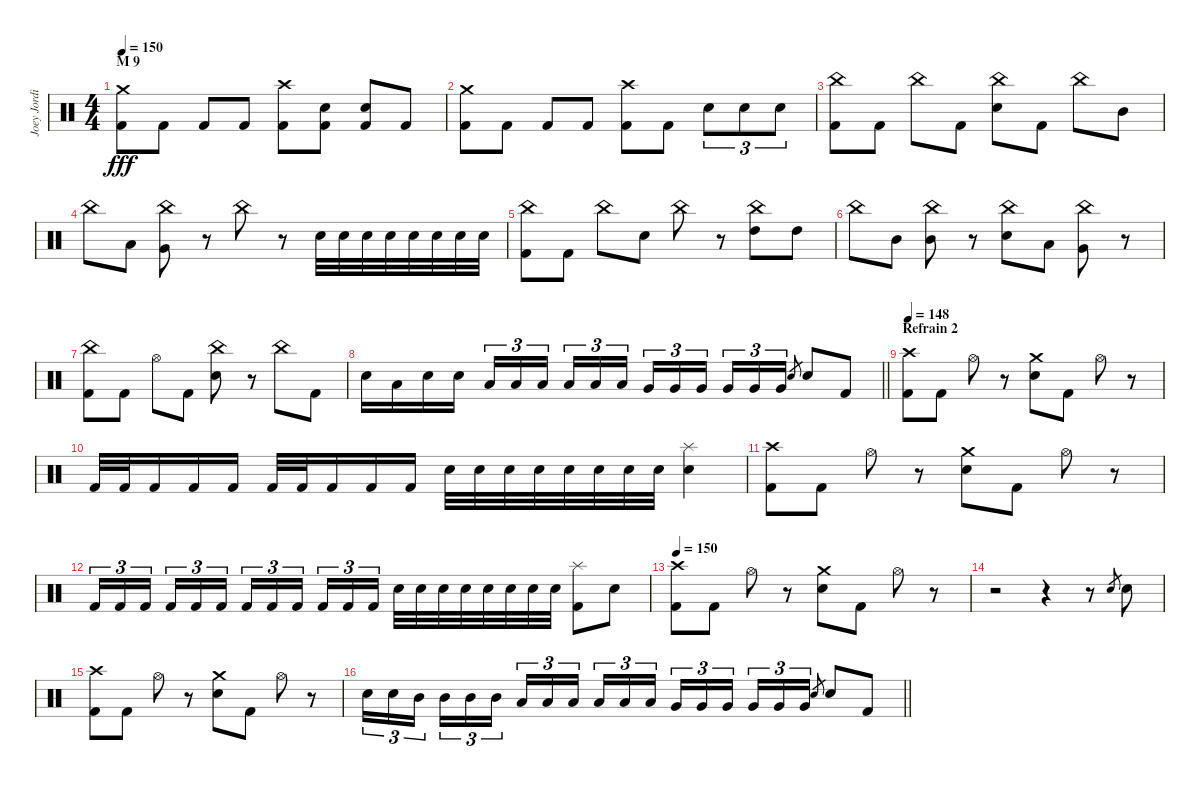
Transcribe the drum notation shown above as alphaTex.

\track ("Joey Jordison" "Joey Jordi") {instrument percussion}
\staff {score}
\articulation defaults
\ts (4 4)
\section ("" "M 9")
\tempo 150
\clef neutral
\ks c
("Crash medium (hit)" "Kick (hit) 2").8{dy fff} "Kick (hit) 2".8 "Kick (hit) 2".8 "Kick (hit) 2".8 ("Crash high (hit)" "Kick (hit) 2").8 ("Electric Snare (hit)" "Kick (hit) 2").8 ("Electric Snare (hit)" "Kick (hit) 2").8 "Kick (hit) 2".8 |
("Crash medium (hit)" "Kick (hit) 2").8 "Kick (hit) 2".8 "Kick (hit) 2".8 "Kick (hit) 2".8 ("Crash high (hit)" "Kick (hit) 2").8 "Kick (hit) 2".8 "Electric Snare (hit)".8{tu (3 2)} "Electric Snare (hit)".8{tu (3 2)} "Electric Snare (hit)".8{tu (3 2)} |
("China (hit)" "Kick (hit) 2").8 "Kick (hit) 2".8 "China (hit)".8 "Kick (hit) 2".8 ("China (hit)" "Electric Snare (hit)").8 "Kick (hit) 2".8 "China (hit)".8 "Mid Tom (hit)".8 |
"China (hit)".8 "Low Tom (hit)".8 ("China (hit)" "Very Low Tom (hit)").8 r.8 "China (hit)".8 r.8 "Electric Snare (hit)".32 "Electric Snare (hit)".32 "Electric Snare (hit)".32 "Electric Snare (hit)".32 "Electric Snare (hit)".32 "Electric Snare (hit)".32 "Electric Snare (hit)".32 "Electric Snare (hit)".32 |
("China (hit)" "Kick (hit) 2").8 "Kick (hit) 2".8 "China (hit)".8 "Electric Snare (hit)".8 "China (hit)".8 r.8 ("China (hit)" "High Tom (hit)").8 "High Tom (hit)".8 |
"China (hit)".8 "Mid Tom (hit)".8 ("China (hit)" "Mid Tom (hit)").8 r.8 ("China (hit)" "Electric Snare (hit)").8 "Low Tom (hit)".8 ("China (hit)" "Very Low Tom (hit)").8 r.8 |
("China (hit)" "Kick (hit) 2").8 "Kick (hit) 2".8 "Hi-Hat (open)".8 "Kick (hit) 2".8 ("China (hit)" "Electric Snare (hit)").8 r.8 "China (hit)".8 "Kick (hit) 2".8 |
\barLineRight lightlight "Electric Snare (hit)".16 "Low Tom (hit)".16 "Electric Snare (hit)".16 "Electric Snare (hit)".16 "Low Tom (hit)".16{tu (3 2)} "Low Tom (hit)".16{tu (3 2)} "Low Tom (hit)".16{tu (3 2) beam splitsecondary} "Low Tom (hit)".16{tu (3 2)} "Low Tom (hit)".16{tu (3 2)} "Low Tom (hit)".16{tu (3 2)} "Very Low Tom (hit)".16{tu (3 2)} "Very Low Tom (hit)".16{tu (3 2)} "Very Low Tom (hit)".16{tu (3 2) beam splitsecondary} "Very Low Tom (hit)".16{tu (3 2)} "Very Low Tom (hit)".16{tu (3 2)} "Very Low Tom (hit)".16{tu (3 2)} "Electric Snare (hit)".8{gr} "Electric Snare (hit)".8 "Kick (hit) 2".8
|
\section ("" "Refrain 2")
\tempo 148
("Crash high (hit)" "Kick (hit) 2").8 "Kick (hit) 2".8 "Hi-Hat (open)".8 r.8 ("Crash medium (hit)" "Electric Snare (hit)").8 "Kick (hit) 2".8 "Hi-Hat (open)".8 r.8 |
"Kick (hit) 2".32 "Kick (hit) 2".32 "Kick (hit) 2".16 "Kick (hit) 2".16 "Kick (hit) 2".16 "Kick (hit) 2".32 "Kick (hit) 2".32 "Kick (hit) 2".16 "Kick (hit) 2".16 "Kick (hit) 2".16 "Electric Snare (hit)".32 "Electric Snare (hit)".32 "Electric Snare (hit)".32 "Electric Snare (hit)".32 "Electric Snare (hit)".32 "Electric Snare (hit)".32 "Electric Snare (hit)".32 "Electric Snare (hit)".32 ("Splash (hit)" "Electric Snare (hit)").4 |
("Crash high (hit)" "Kick (hit) 2").8 "Kick (hit) 2".8 "Hi-Hat (open)".8 r.8 ("Crash medium (hit)" "Electric Snare (hit)").8 "Kick (hit) 2".8 "Hi-Hat (open)".8 r.8 |
"Kick (hit) 2".16{tu (3 2)} "Kick (hit) 2".16{tu (3 2)} "Kick (hit) 2".16{tu (3 2) beam splitsecondary} "Kick (hit) 2".16{tu (3 2)} "Kick (hit) 2".16{tu (3 2)} "Kick (hit) 2".16{tu (3 2)} "Kick (hit) 2".16{tu (3 2)} "Kick (hit) 2".16{tu (3 2)} "Kick (hit) 2".16{tu (3 2) beam splitsecondary} "Kick (hit) 2".16{tu (3 2)} "Kick (hit) 2".16{tu (3 2)} "Kick (hit) 2".16{tu (3 2)} "Electric Snare (hit)".32 "Electric Snare (hit)".32 "Electric Snare (hit)".32 "Electric Snare (hit)".32 "Electric Snare (hit)".32 "Electric Snare (hit)".32 "Electric Snare (hit)".32 "Electric Snare (hit)".32 ("Splash (hit)" "Kick (hit) 2").8 "Electric Snare (hit)".8 |
\tempo 150
("Crash high (hit)" "Kick (hit) 2").8 "Kick (hit) 2".8 "Hi-Hat (open)".8 r.8 ("Crash medium (hit)" "Electric Snare (hit)").8 "Kick (hit) 2".8 "Hi-Hat (open)".8 r.8 |
r.2 r.4 r.8 "Electric Snare (hit)".8{gr} "Electric Snare (hit)".8 |
("Crash high (hit)" "Kick (hit) 2").8 "Kick (hit) 2".8 "Hi-Hat (open)".8 r.8 ("Crash medium (hit)" "Electric Snare (hit)").8 "Kick (hit) 2".8 "Hi-Hat (open)".8 r.8 |
\barLineRight lightlight "Electric Snare (hit)".16{tu (3 2)} "Electric Snare (hit)".16{tu (3 2)} "Mid Tom (hit)".16{tu (3 2) beam splitsecondary} "Mid Tom (hit)".16{tu (3 2)} "Mid Tom (hit)".16{tu (3 2)} "Mid Tom (hit)".16{tu (3 2)} "Low Tom (hit)".16{tu (3 2)} "Low Tom (hit)".16{tu (3 2)} "Low Tom (hit)".16{tu (3 2) beam splitsecondary} "Low Tom (hit)".16{tu (3 2)} "Low Tom (hit)".16{tu (3 2)} "Low Tom (hit)".16{tu (3 2)} "Very Low Tom (hit)".16{tu (3 2)} "Very Low Tom (hit)".16{tu (3 2)} "Very Low Tom (hit)".16{tu (3 2) beam splitsecondary} "Very Low Tom (hit)".16{tu (3 2)} "Very Low Tom (hit)".16{tu (3 2)} "Very Low Tom (hit)".16{tu (3 2)} "Electric Snare (hit)".8{gr} "Electric Snare (hit)".8 "Kick (hit) 2".8
